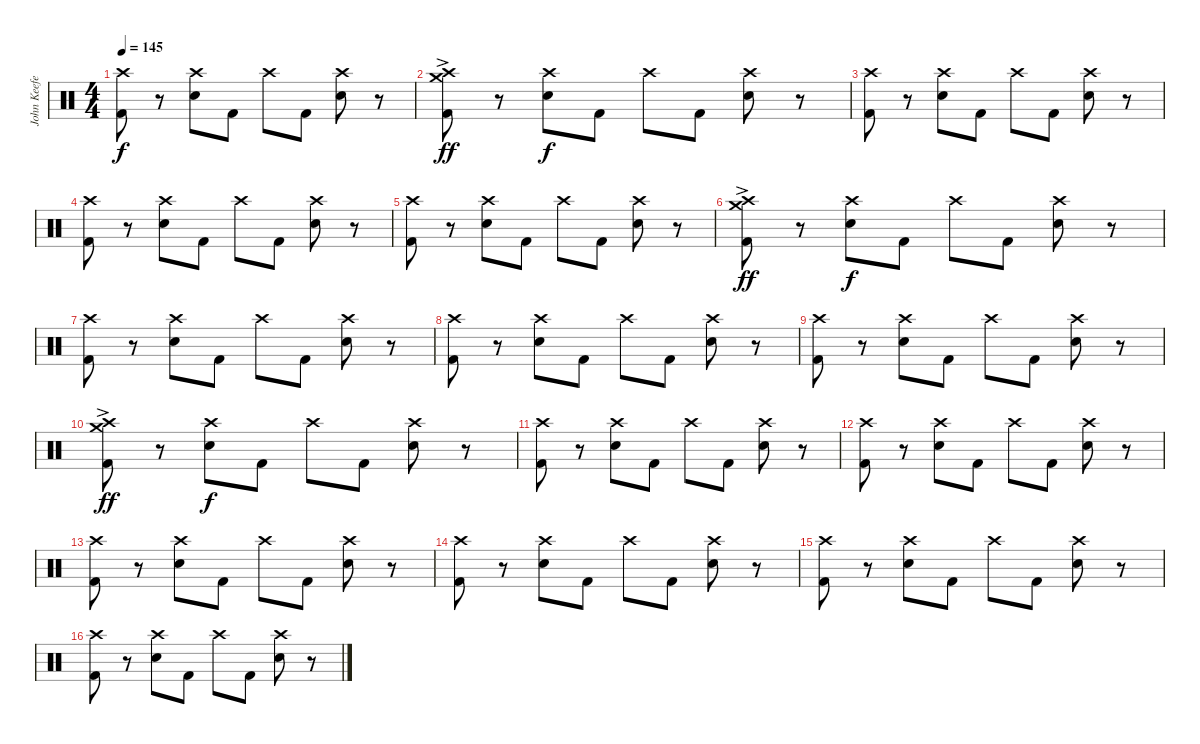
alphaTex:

\track ("John Keefe (Percussion)" "John Keefe") {instrument percussion}
\staff {score}
\articulation defaults
\ts (4 4)
\tempo 145
\clef neutral
\ks c
("Crash high (hit)" "Kick (hit) 2").8{dy f} r.8 ("Crash high (hit)" "Electric Snare (hit)").8 "Kick (hit) 2".8 "Crash high (hit)".8 "Kick (hit) 2".8 ("Crash high (hit)" "Electric Snare (hit)").8 r.8 |
("Crash high (hit)"{ac} "Crash medium (hit)" "Kick (hit) 2").8{dy ff} r.8 ("Crash high (hit)" "Electric Snare (hit)").8{dy f} "Kick (hit) 2".8 "Crash high (hit)".8 "Kick (hit) 2".8 ("Crash high (hit)" "Electric Snare (hit)").8 r.8 |
("Crash high (hit)" "Kick (hit) 2").8 r.8 ("Crash high (hit)" "Electric Snare (hit)").8 "Kick (hit) 2".8 "Crash high (hit)".8 "Kick (hit) 2".8 ("Crash high (hit)" "Electric Snare (hit)").8 r.8 |
("Crash high (hit)" "Kick (hit) 2").8 r.8 ("Crash high (hit)" "Electric Snare (hit)").8 "Kick (hit) 2".8 "Crash high (hit)".8 "Kick (hit) 2".8 ("Crash high (hit)" "Electric Snare (hit)").8 r.8 |
("Crash high (hit)" "Kick (hit) 2").8 r.8 ("Crash high (hit)" "Electric Snare (hit)").8 "Kick (hit) 2".8 "Crash high (hit)".8 "Kick (hit) 2".8 ("Crash high (hit)" "Electric Snare (hit)").8 r.8 |
("Crash high (hit)"{ac} "Crash medium (hit)" "Kick (hit) 2").8{dy ff} r.8 ("Crash high (hit)" "Electric Snare (hit)").8{dy f} "Kick (hit) 2".8 "Crash high (hit)".8 "Kick (hit) 2".8 ("Crash high (hit)" "Electric Snare (hit)").8 r.8 |
("Crash high (hit)" "Kick (hit) 2").8 r.8 ("Crash high (hit)" "Electric Snare (hit)").8 "Kick (hit) 2".8 "Crash high (hit)".8 "Kick (hit) 2".8 ("Crash high (hit)" "Electric Snare (hit)").8 r.8 |
("Crash high (hit)" "Kick (hit) 2").8 r.8 ("Crash high (hit)" "Electric Snare (hit)").8 "Kick (hit) 2".8 "Crash high (hit)".8 "Kick (hit) 2".8 ("Crash high (hit)" "Electric Snare (hit)").8 r.8 |
("Crash high (hit)" "Kick (hit) 2").8 r.8 ("Crash high (hit)" "Electric Snare (hit)").8 "Kick (hit) 2".8 "Crash high (hit)".8 "Kick (hit) 2".8 ("Crash high (hit)" "Electric Snare (hit)").8 r.8 |
("Crash high (hit)"{ac} "Crash medium (hit)" "Kick (hit) 2").8{dy ff} r.8 ("Crash high (hit)" "Electric Snare (hit)").8{dy f} "Kick (hit) 2".8 "Crash high (hit)".8 "Kick (hit) 2".8 ("Crash high (hit)" "Electric Snare (hit)").8 r.8 |
("Crash high (hit)" "Kick (hit) 2").8 r.8 ("Crash high (hit)" "Electric Snare (hit)").8 "Kick (hit) 2".8 "Crash high (hit)".8 "Kick (hit) 2".8 ("Crash high (hit)" "Electric Snare (hit)").8 r.8 |
("Crash high (hit)" "Kick (hit) 2").8 r.8 ("Crash high (hit)" "Electric Snare (hit)").8 "Kick (hit) 2".8 "Crash high (hit)".8 "Kick (hit) 2".8 ("Crash high (hit)" "Electric Snare (hit)").8 r.8 |
("Crash high (hit)" "Kick (hit) 2").8 r.8 ("Crash high (hit)" "Electric Snare (hit)").8 "Kick (hit) 2".8 "Crash high (hit)".8 "Kick (hit) 2".8 ("Crash high (hit)" "Electric Snare (hit)").8 r.8 |
("Crash high (hit)" "Kick (hit) 2").8 r.8 ("Crash high (hit)" "Electric Snare (hit)").8 "Kick (hit) 2".8 "Crash high (hit)".8 "Kick (hit) 2".8 ("Crash high (hit)" "Electric Snare (hit)").8 r.8 |
("Crash high (hit)" "Kick (hit) 2").8 r.8 ("Crash high (hit)" "Electric Snare (hit)").8 "Kick (hit) 2".8 "Crash high (hit)".8 "Kick (hit) 2".8 ("Crash high (hit)" "Electric Snare (hit)").8 r.8 |
("Crash high (hit)" "Kick (hit) 2").8 r.8 ("Crash high (hit)" "Electric Snare (hit)").8 "Kick (hit) 2".8 "Crash high (hit)".8 "Kick (hit) 2".8 ("Crash high (hit)" "Electric Snare (hit)").8 r.8
